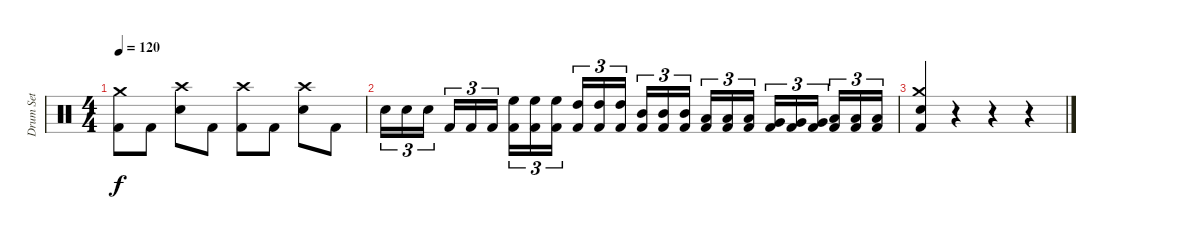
\track ("Drum Set" "Drum Set") {instrument percussion}
\staff {score}
\articulation defaults
\ts (4 4)
\tempo 120
\clef neutral
\ks c
("Kick (hit) 2" "Crash medium (hit)").8{dy f} "Kick (hit) 2".8 ("Snare (hit) 2" "Crash high (hit)").8 "Kick (hit) 2".8 ("Kick (hit) 2" "Crash high (hit)").8 "Kick (hit) 2".8 ("Snare (hit) 2" "Crash high (hit)").8 "Kick (hit) 2".8 |
"Snare (hit) 2".16{tu (3 2)} "Snare (hit) 2".16{tu (3 2)} "Snare (hit) 2".16{tu (3 2) beam splitsecondary} "Kick (hit) 2".16{tu (3 2)} "Kick (hit) 2".16{tu (3 2)} "Kick (hit) 2".16{tu (3 2)} ("Kick (hit) 2" "High Floor Tom (hit)").16{tu (3 2)} ("Kick (hit) 2" "High Floor Tom (hit)").16{tu (3 2)} ("Kick (hit) 2" "High Floor Tom (hit)").16{tu (3 2) beam splitsecondary} ("Kick (hit) 2" "High Tom (hit)").16{tu (3 2)} ("Kick (hit) 2" "High Tom (hit)").16{tu (3 2)} ("Kick (hit) 2" "High Tom (hit)").16{tu (3 2)} ("Kick (hit) 2" "Mid Tom (hit)").16{tu (3 2)} ("Kick (hit) 2" "Mid Tom (hit)").16{tu (3 2)} ("Kick (hit) 2" "Mid Tom (hit)").16{tu (3 2) beam splitsecondary} ("Kick (hit) 2" "Low Tom (hit)").16{tu (3 2)} ("Kick (hit) 2" "Low Tom (hit)").16{tu (3 2)} ("Kick (hit) 2" "Low Tom (hit)").16{tu (3 2)} ("Kick (hit) 2" "Very Low Tom (hit)").16{tu (3 2)} ("Kick (hit) 2" "Very Low Tom (hit)").16{tu (3 2)} ("Kick (hit) 2" "Very Low Tom (hit)").16{tu (3 2) beam splitsecondary} ("Kick (hit) 2" "Low Floor Tom (hit)").16{tu (3 2)} ("Kick (hit) 2" "Low Floor Tom (hit)").16{tu (3 2)} ("Kick (hit) 2" "Low Floor Tom (hit)").16{tu (3 2)} |
("Crash medium (hit)" "Kick (hit) 2" "Snare (hit) 2").4 r.4 r.4 r.4
